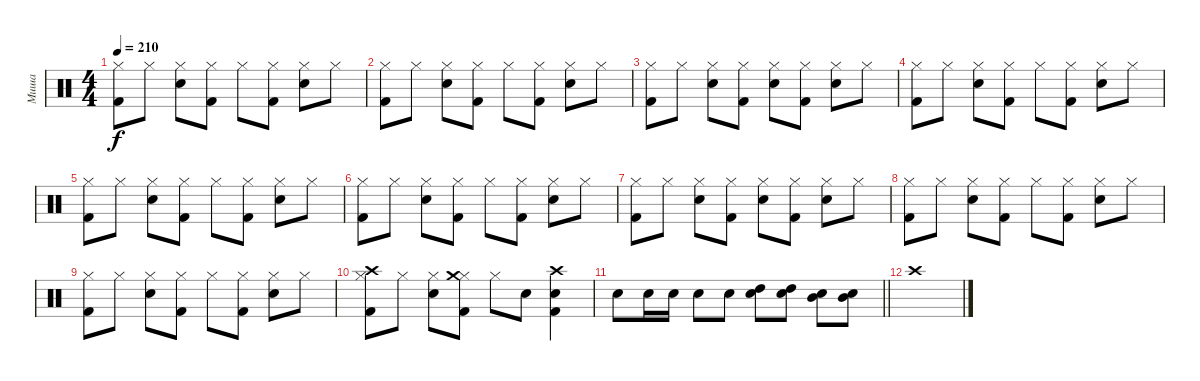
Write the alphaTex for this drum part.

\track ("Миша" "Миша") {instrument percussion}
\staff {score}
\articulation defaults
\ts (4 4)
\tempo 210
\clef neutral
\ks c
("Hi-Hat (closed)" "Kick (hit) 2").8{dy f} "Hi-Hat (closed)".8 ("Hi-Hat (closed)" "Snare (hit) 2").8 ("Hi-Hat (closed)" "Kick (hit) 2").8 "Hi-Hat (closed)".8 ("Hi-Hat (closed)" "Kick (hit) 2").8 ("Hi-Hat (closed)" "Snare (hit) 2").8 "Hi-Hat (closed)".8 |
("Hi-Hat (closed)" "Kick (hit) 2").8 "Hi-Hat (closed)".8 ("Hi-Hat (closed)" "Snare (hit) 2").8 ("Hi-Hat (closed)" "Kick (hit) 2").8 "Hi-Hat (closed)".8 ("Hi-Hat (closed)" "Kick (hit) 2").8 ("Hi-Hat (closed)" "Snare (hit) 2").8 "Hi-Hat (closed)".8 |
("Hi-Hat (closed)" "Kick (hit) 2").8 "Hi-Hat (closed)".8 ("Hi-Hat (closed)" "Snare (hit) 2").8 ("Hi-Hat (closed)" "Kick (hit) 2").8 ("Hi-Hat (closed)" "Snare (hit) 2").8 ("Hi-Hat (closed)" "Kick (hit) 2").8 ("Hi-Hat (closed)" "Snare (hit) 2").8 "Hi-Hat (closed)".8 |
("Hi-Hat (closed)" "Kick (hit) 2").8 "Hi-Hat (closed)".8 ("Hi-Hat (closed)" "Snare (hit) 2").8 ("Hi-Hat (closed)" "Kick (hit) 2").8 "Hi-Hat (closed)".8 ("Hi-Hat (closed)" "Kick (hit) 2").8 ("Hi-Hat (closed)" "Snare (hit) 2").8 "Hi-Hat (closed)".8 |
("Hi-Hat (closed)" "Kick (hit) 2").8 "Hi-Hat (closed)".8 ("Hi-Hat (closed)" "Snare (hit) 2").8 ("Hi-Hat (closed)" "Kick (hit) 2").8 "Hi-Hat (closed)".8 ("Hi-Hat (closed)" "Kick (hit) 2").8 ("Hi-Hat (closed)" "Snare (hit) 2").8 "Hi-Hat (closed)".8 |
("Hi-Hat (closed)" "Kick (hit) 2").8 "Hi-Hat (closed)".8 ("Hi-Hat (closed)" "Snare (hit) 2").8 ("Hi-Hat (closed)" "Kick (hit) 2").8 "Hi-Hat (closed)".8 ("Hi-Hat (closed)" "Kick (hit) 2").8 ("Hi-Hat (closed)" "Snare (hit) 2").8 "Hi-Hat (closed)".8 |
("Hi-Hat (closed)" "Kick (hit) 2").8 "Hi-Hat (closed)".8 ("Hi-Hat (closed)" "Snare (hit) 2").8 ("Hi-Hat (closed)" "Kick (hit) 2").8 ("Hi-Hat (closed)" "Snare (hit) 2").8 ("Hi-Hat (closed)" "Kick (hit) 2").8 ("Hi-Hat (closed)" "Snare (hit) 2").8 "Hi-Hat (closed)".8 |
("Hi-Hat (closed)" "Kick (hit) 2").8 "Hi-Hat (closed)".8 ("Hi-Hat (closed)" "Snare (hit) 2").8 ("Hi-Hat (closed)" "Kick (hit) 2").8 "Hi-Hat (closed)".8 ("Hi-Hat (closed)" "Kick (hit) 2").8 ("Hi-Hat (closed)" "Snare (hit) 2").8 "Hi-Hat (closed)".8 |
("Hi-Hat (closed)" "Kick (hit) 2").8 "Hi-Hat (closed)".8 ("Hi-Hat (closed)" "Snare (hit) 2").8 ("Hi-Hat (closed)" "Kick (hit) 2").8 "Hi-Hat (closed)".8 ("Hi-Hat (closed)" "Kick (hit) 2").8 ("Hi-Hat (closed)" "Snare (hit) 2").8 "Hi-Hat (closed)".8 |
("Hi-Hat (closed)" "Kick (hit) 2" "Crash high (hit)").8 "Hi-Hat (closed)".8 ("Hi-Hat (closed)" "Snare (hit) 2").8 ("Hi-Hat (closed)" "Kick (hit) 2" "Crash medium (hit)").8 "Hi-Hat (closed)".8 "Snare (hit) 2".8 ("Kick (hit) 2" "Snare (hit) 2" "Crash high (hit)").4 |
\barLineRight lightlight "Snare (hit) 2".8 "Snare (hit) 2".16 "Snare (hit) 2".16 "Snare (hit) 2".8 "Snare (hit) 2".8
("Snare (hit) 2" "High Tom (hit)").8 ("Snare (hit) 2" "High Tom (hit)").8 ("Snare (hit) 2" "Mid Tom (hit)").8 ("Snare (hit) 2" "Mid Tom (hit)").8 |
"Crash high (hit)".1
